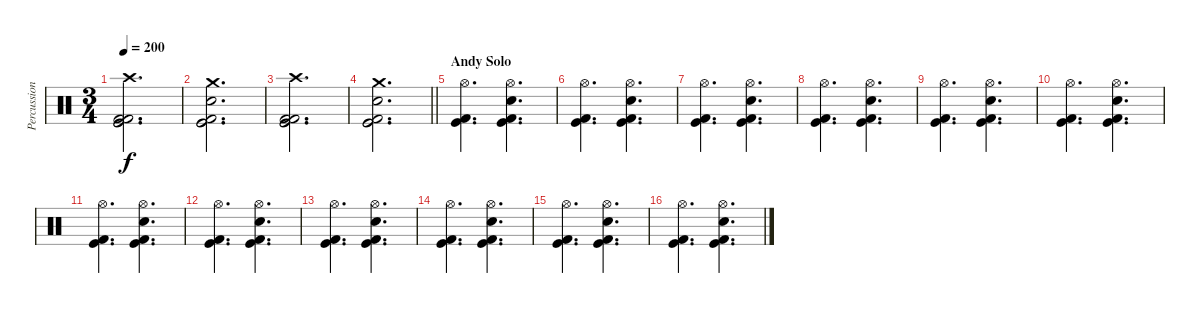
\track ("Percussion" "Percussion") {instrument percussion}
\staff {score}
\articulation defaults
\ts (3 4)
\tempo 200
\clef neutral
\ks c
("Crash high (hit)" "Kick (hit) 2" "Kick (hit)" "Kick (hit) 2" "Kick (hit)").2{d dy f} |
("Electric Snare (hit)" "Crash medium (hit)" "Kick (hit)" "Kick (hit) 2" "Kick (hit)").2{d} |
("Crash high (hit)" "Kick (hit) 2" "Kick (hit)" "Kick (hit) 2" "Kick (hit)").2{d} |
\barLineRight lightlight
("Electric Snare (hit)" "Crash medium (hit)" "Kick (hit)" "Kick (hit) 2" "Kick (hit)").2{d} |
\section ("" "Andy Solo")
("Hi-Hat (open)" "Kick (hit) 2" "Kick (hit)").4{d} ("Hi-Hat (open)" "Electric Snare (hit)" "Kick (hit) 2" "Kick (hit)").4{d} |
("Hi-Hat (open)" "Kick (hit) 2" "Kick (hit)").4{d} ("Hi-Hat (open)" "Electric Snare (hit)" "Kick (hit) 2" "Kick (hit)").4{d} |
("Hi-Hat (open)" "Kick (hit) 2" "Kick (hit)").4{d} ("Hi-Hat (open)" "Electric Snare (hit)" "Kick (hit) 2" "Kick (hit)").4{d} |
("Hi-Hat (open)" "Kick (hit) 2" "Kick (hit)").4{d} ("Hi-Hat (open)" "Electric Snare (hit)" "Kick (hit) 2" "Kick (hit)").4{d} |
("Hi-Hat (open)" "Kick (hit) 2" "Kick (hit)").4{d} ("Hi-Hat (open)" "Electric Snare (hit)" "Kick (hit) 2" "Kick (hit)").4{d} |
("Hi-Hat (open)" "Kick (hit) 2" "Kick (hit)").4{d} ("Hi-Hat (open)" "Electric Snare (hit)" "Kick (hit) 2" "Kick (hit)").4{d} |
("Hi-Hat (open)" "Kick (hit) 2" "Kick (hit)").4{d} ("Hi-Hat (open)" "Electric Snare (hit)" "Kick (hit) 2" "Kick (hit)").4{d} |
("Hi-Hat (open)" "Kick (hit) 2" "Kick (hit)").4{d} ("Hi-Hat (open)" "Electric Snare (hit)" "Kick (hit) 2" "Kick (hit)").4{d} |
("Hi-Hat (open)" "Kick (hit) 2" "Kick (hit)").4{d} ("Hi-Hat (open)" "Electric Snare (hit)" "Kick (hit) 2" "Kick (hit)").4{d} |
("Hi-Hat (open)" "Kick (hit) 2" "Kick (hit)").4{d} ("Hi-Hat (open)" "Electric Snare (hit)" "Kick (hit) 2" "Kick (hit)").4{d} |
("Hi-Hat (open)" "Kick (hit) 2" "Kick (hit)").4{d} ("Hi-Hat (open)" "Electric Snare (hit)" "Kick (hit) 2" "Kick (hit)").4{d} |
("Hi-Hat (open)" "Kick (hit) 2" "Kick (hit)").4{d} ("Hi-Hat (open)" "Electric Snare (hit)" "Kick (hit) 2" "Kick (hit)").4{d}
